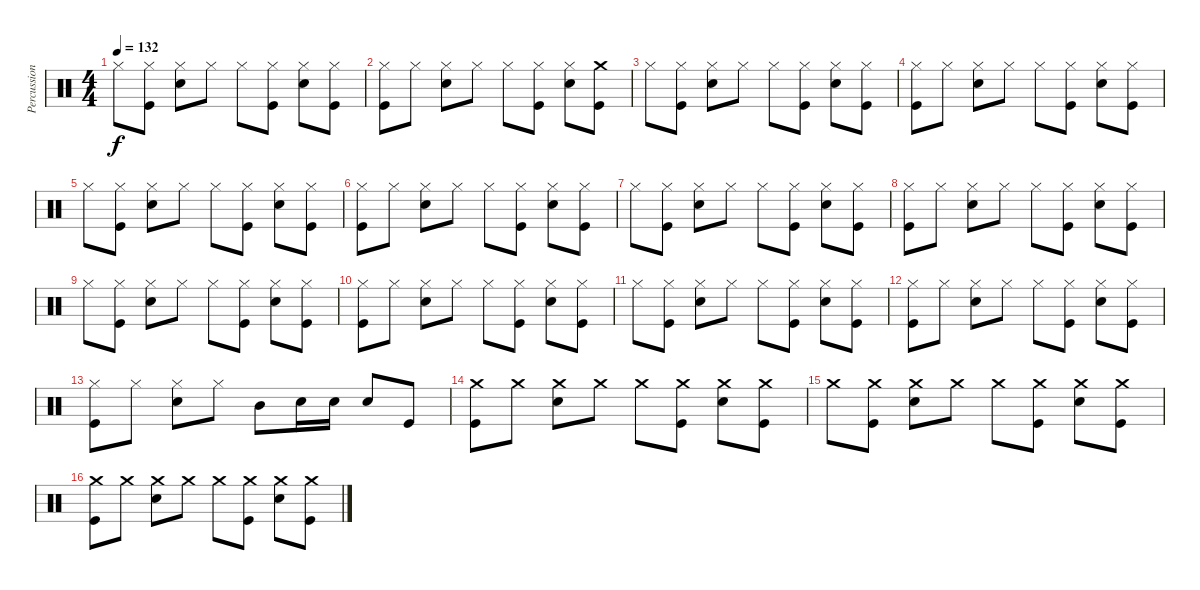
\track ("Percussion" "Percussion") {instrument percussion}
\staff {score}
\articulation defaults
\ts (4 4)
\tempo 132
\clef neutral
\ks c "Hi-Hat (closed)".8{dy f}
("Hi-Hat (closed)" "Kick (hit)").8 ("Hi-Hat (closed)" "Snare (hit) 2").8 "Hi-Hat (closed)".8 "Hi-Hat (closed)".8 ("Hi-Hat (closed)" "Kick (hit)").8 ("Hi-Hat (closed)" "Snare (hit) 2").8 ("Hi-Hat (closed)" "Kick (hit)").8 |
("Hi-Hat (closed)" "Kick (hit)").8 "Hi-Hat (closed)".8 ("Hi-Hat (closed)" "Snare (hit) 2").8 "Hi-Hat (closed)".8 "Hi-Hat (closed)".8 ("Hi-Hat (closed)" "Kick (hit)").8 ("Hi-Hat (closed)" "Snare (hit) 2").8 ("Crash medium (hit)" "Kick (hit)").8 |
"Hi-Hat (closed)".8 ("Hi-Hat (closed)" "Kick (hit)").8 ("Hi-Hat (closed)" "Snare (hit) 2").8 "Hi-Hat (closed)".8 "Hi-Hat (closed)".8 ("Hi-Hat (closed)" "Kick (hit)").8 ("Hi-Hat (closed)" "Snare (hit) 2").8 ("Hi-Hat (closed)" "Kick (hit)").8 |
("Hi-Hat (closed)" "Kick (hit)").8 "Hi-Hat (closed)".8 ("Hi-Hat (closed)" "Snare (hit) 2").8 "Hi-Hat (closed)".8 "Hi-Hat (closed)".8 ("Hi-Hat (closed)" "Kick (hit)").8 ("Hi-Hat (closed)" "Snare (hit) 2").8 ("Hi-Hat (closed)" "Kick (hit)").8 |
"Hi-Hat (closed)".8 ("Hi-Hat (closed)" "Kick (hit)").8 ("Hi-Hat (closed)" "Snare (hit) 2").8 "Hi-Hat (closed)".8 "Hi-Hat (closed)".8 ("Hi-Hat (closed)" "Kick (hit)").8 ("Hi-Hat (closed)" "Snare (hit) 2").8 ("Hi-Hat (closed)" "Kick (hit)").8 |
("Hi-Hat (closed)" "Kick (hit)").8 "Hi-Hat (closed)".8 ("Hi-Hat (closed)" "Snare (hit) 2").8 "Hi-Hat (closed)".8 "Hi-Hat (closed)".8 ("Hi-Hat (closed)" "Kick (hit)").8 ("Hi-Hat (closed)" "Snare (hit) 2").8 ("Hi-Hat (closed)" "Kick (hit)").8 |
"Hi-Hat (closed)".8 ("Hi-Hat (closed)" "Kick (hit)").8 ("Hi-Hat (closed)" "Snare (hit) 2").8 "Hi-Hat (closed)".8 "Hi-Hat (closed)".8 ("Hi-Hat (closed)" "Kick (hit)").8 ("Hi-Hat (closed)" "Snare (hit) 2").8 ("Hi-Hat (closed)" "Kick (hit)").8 |
("Hi-Hat (closed)" "Kick (hit)").8 "Hi-Hat (closed)".8 ("Hi-Hat (closed)" "Snare (hit) 2").8 "Hi-Hat (closed)".8 "Hi-Hat (closed)".8 ("Hi-Hat (closed)" "Kick (hit)").8 ("Hi-Hat (closed)" "Snare (hit) 2").8 ("Hi-Hat (closed)" "Kick (hit)").8 |
"Hi-Hat (closed)".8 ("Hi-Hat (closed)" "Kick (hit)").8 ("Hi-Hat (closed)" "Snare (hit) 2").8 "Hi-Hat (closed)".8 "Hi-Hat (closed)".8 ("Hi-Hat (closed)" "Kick (hit)").8 ("Hi-Hat (closed)" "Snare (hit) 2").8 ("Hi-Hat (closed)" "Kick (hit)").8 |
("Hi-Hat (closed)" "Kick (hit)").8 "Hi-Hat (closed)".8 ("Hi-Hat (closed)" "Snare (hit) 2").8 "Hi-Hat (closed)".8 "Hi-Hat (closed)".8 ("Hi-Hat (closed)" "Kick (hit)").8 ("Hi-Hat (closed)" "Snare (hit) 2").8 ("Hi-Hat (closed)" "Kick (hit)").8 |
"Hi-Hat (closed)".8 ("Hi-Hat (closed)" "Kick (hit)").8 ("Hi-Hat (closed)" "Snare (hit) 2").8 "Hi-Hat (closed)".8 "Hi-Hat (closed)".8 ("Hi-Hat (closed)" "Kick (hit)").8 ("Hi-Hat (closed)" "Snare (hit) 2").8 ("Hi-Hat (closed)" "Kick (hit)").8 |
("Hi-Hat (closed)" "Kick (hit)").8 "Hi-Hat (closed)".8 ("Hi-Hat (closed)" "Snare (hit) 2").8 "Hi-Hat (closed)".8 "Hi-Hat (closed)".8 ("Hi-Hat (closed)" "Kick (hit)").8 ("Hi-Hat (closed)" "Snare (hit) 2").8 ("Hi-Hat (closed)" "Kick (hit)").8 |
("Hi-Hat (closed)" "Kick (hit)").8 "Hi-Hat (closed)".8 ("Hi-Hat (closed)" "Snare (hit) 2").8 "Hi-Hat (closed)".8 "Mid Tom (hit)".8 "Snare (hit) 2".16 "Snare (hit) 2".16 "Snare (hit) 2".8 "Kick (hit)".8 |
("Crash medium (hit)" "Kick (hit)").8 "Crash medium (hit)".8 ("Crash medium (hit)" "Snare (hit) 2").8 "Crash medium (hit)".8 "Crash medium (hit)".8 ("Crash medium (hit)" "Kick (hit)").8 ("Crash medium (hit)" "Snare (hit) 2").8 ("Crash medium (hit)" "Kick (hit)").8 |
"Crash medium (hit)".8 ("Crash medium (hit)" "Kick (hit)").8 ("Crash medium (hit)" "Snare (hit) 2").8 "Crash medium (hit)".8 "Crash medium (hit)".8 ("Crash medium (hit)" "Kick (hit)").8 ("Crash medium (hit)" "Snare (hit) 2").8 ("Crash medium (hit)" "Kick (hit)").8 |
("Crash medium (hit)" "Kick (hit)").8 "Crash medium (hit)".8 ("Crash medium (hit)" "Snare (hit) 2").8 "Crash medium (hit)".8 "Crash medium (hit)".8 ("Crash medium (hit)" "Kick (hit)").8 ("Crash medium (hit)" "Snare (hit) 2").8 ("Crash medium (hit)" "Kick (hit)").8
